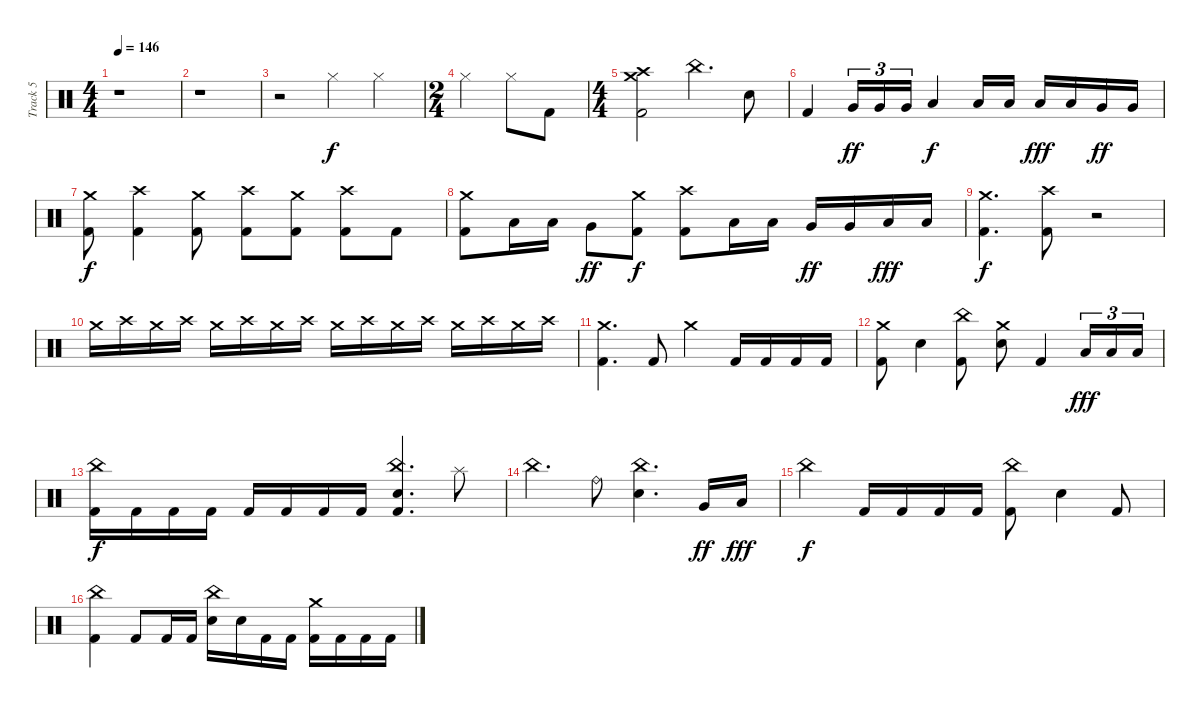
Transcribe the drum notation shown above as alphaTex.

\track ("Track 5" "Track 5") {instrument percussion}
\staff {score}
\articulation defaults
\ts (4 4)
\tempo 146
\clef neutral
\ks c
r.1{dy f} |
r.1 |
r.2 "Hi-Hat (closed)".4 "Hi-Hat (closed)".4 |
\ts (2 4)
"Hi-Hat (closed)".4 "Hi-Hat (closed)".8 "Kick (hit) 2".8 |
\ts (4 4)
("Crash medium (hit)" "Crash high (hit)" "Kick (hit) 2").2 "China (hit)".4{d} "Electric Snare (hit)".8 |
"Kick (hit) 2".4 "Very Low Tom (hit)".16{tu (3 2) dy ff} "Very Low Tom (hit)".16{tu (3 2)} "Very Low Tom (hit)".16{tu (3 2)} "Low Floor Tom (hit)".4{dy f} "Low Tom (hit)".16 "Low Tom (hit)".16 "Low Floor Tom (hit)".16{dy fff} "Low Floor Tom (hit)".16 "Very Low Tom (hit)".16{dy ff} "Very Low Tom (hit)".16 |
("Crash medium (hit)" "Kick (hit) 2").8{dy f} ("Crash high (hit)" "Kick (hit) 2").4 ("Crash medium (hit)" "Kick (hit) 2").8 ("Crash high (hit)" "Kick (hit) 2").8 ("Crash medium (hit)" "Kick (hit) 2").8 ("Crash high (hit)" "Kick (hit) 2").8 "Kick (hit) 2".8 |
("Crash medium (hit)" "Kick (hit) 2").8 "Low Tom (hit)".16 "Low Tom (hit)".16 "Very Low Tom (hit)".8{dy ff} ("Crash medium (hit)" "Kick (hit) 2").8{dy f} ("Crash high (hit)" "Kick (hit) 2").8 "Low Tom (hit)".16 "Low Tom (hit)".16 "Very Low Tom (hit)".16{dy ff} "Very Low Tom (hit)".16 "Low Floor Tom (hit)".16{dy fff} "Low Floor Tom (hit)".16 |
("Crash medium (hit)" "Kick (hit) 2").4{d dy f} ("Crash high (hit)" "Kick (hit) 2").8 r.2 |
"Crash medium (hit)".16 "Crash high (hit)".16 "Crash medium (hit)".16 "Crash high (hit)".16 "Crash medium (hit)".16 "Crash high (hit)".16 "Crash medium (hit)".16 "Crash high (hit)".16 "Crash medium (hit)".16 "Crash high (hit)".16 "Crash medium (hit)".16 "Crash high (hit)".16 "Crash medium (hit)".16 "Crash high (hit)".16 "Crash medium (hit)".16 "Crash high (hit)".16 |
("Crash medium (hit)" "Kick (hit) 2").4{d} "Kick (hit) 2".8 "Crash medium (hit)".4 "Kick (hit) 2".16 "Kick (hit) 2".16 "Kick (hit) 2".16 "Kick (hit) 2".16 |
("Crash medium (hit)" "Kick (hit) 2").8 "Electric Snare (hit)".4 ("China (hit)" "Kick (hit) 2").8 ("Crash medium (hit)" "Electric Snare (hit)").8 "Kick (hit) 2".4 "Low Floor Tom (hit)".16{tu (3 2) dy fff} "Low Floor Tom (hit)".16{tu (3 2)} "Low Floor Tom (hit)".16{tu (3 2)} |
("China (hit)" "Kick (hit) 2").16{dy f} "Kick (hit) 2".16 "Kick (hit) 2".16 "Kick (hit) 2".16 "Kick (hit) 2".16 "Kick (hit) 2".16 "Kick (hit) 2".16 "Kick (hit) 2".16 ("China (hit)" "Electric Snare (hit)" "Kick (hit) 2").4{d} "Splash (hit)".8 |
"China (hit)".4{d} "Ride (bell)".8 ("China (hit)" "Electric Snare (hit)").4{d} "Very Low Tom (hit)".16{dy ff} "Low Floor Tom (hit)".16{dy fff} |
"China (hit)".4{dy f} "Kick (hit) 2".16 "Kick (hit) 2".16 "Kick (hit) 2".16 "Kick (hit) 2".16 ("China (hit)" "Kick (hit) 2").8 "Electric Snare (hit)".4 "Kick (hit) 2".8 |
("China (hit)" "Kick (hit) 2").4 "Kick (hit) 2".8 "Kick (hit) 2".16 "Kick (hit) 2".16 ("China (hit)" "Electric Snare (hit)").16 "Electric Snare (hit)".16 "Kick (hit) 2".16 "Kick (hit) 2".16 ("Crash medium (hit)" "Kick (hit) 2").16 "Kick (hit) 2".16 "Kick (hit) 2".16 "Kick (hit) 2".16
